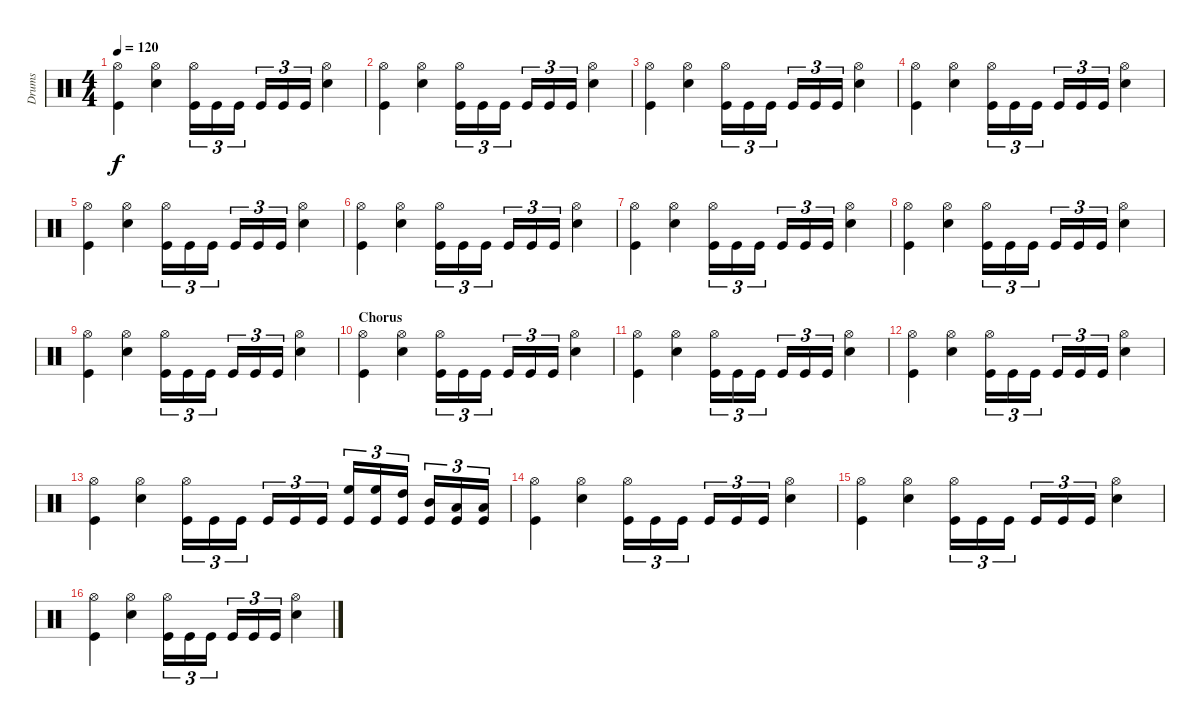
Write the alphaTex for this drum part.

\track ("Drums" "Drums") {instrument percussion}
\staff {score}
\articulation defaults
\ts (4 4)
\tempo 120
\clef neutral
\ks c
("Hi-Hat (open)" "Kick (hit)").4{dy f} ("Hi-Hat (open)" "Snare (hit) 2").4 ("Hi-Hat (open)" "Kick (hit)").16{tu (3 2)} "Kick (hit)".16{tu (3 2)} "Kick (hit)".16{tu (3 2)} "Kick (hit)".16{tu (3 2)} "Kick (hit)".16{tu (3 2)} "Kick (hit)".16{tu (3 2)} ("Hi-Hat (open)" "Snare (hit) 2").4 |
("Hi-Hat (open)" "Kick (hit)").4 ("Hi-Hat (open)" "Snare (hit) 2").4 ("Hi-Hat (open)" "Kick (hit)").16{tu (3 2)} "Kick (hit)".16{tu (3 2)} "Kick (hit)".16{tu (3 2)} "Kick (hit)".16{tu (3 2)} "Kick (hit)".16{tu (3 2)} "Kick (hit)".16{tu (3 2)} ("Hi-Hat (open)" "Snare (hit) 2").4 |
("Hi-Hat (open)" "Kick (hit)").4 ("Hi-Hat (open)" "Snare (hit) 2").4 ("Hi-Hat (open)" "Kick (hit)").16{tu (3 2)} "Kick (hit)".16{tu (3 2)} "Kick (hit)".16{tu (3 2)} "Kick (hit)".16{tu (3 2)} "Kick (hit)".16{tu (3 2)} "Kick (hit)".16{tu (3 2)} ("Hi-Hat (open)" "Snare (hit) 2").4 |
("Hi-Hat (open)" "Kick (hit)").4 ("Hi-Hat (open)" "Snare (hit) 2").4 ("Hi-Hat (open)" "Kick (hit)").16{tu (3 2)} "Kick (hit)".16{tu (3 2)} "Kick (hit)".16{tu (3 2)} "Kick (hit)".16{tu (3 2)} "Kick (hit)".16{tu (3 2)} "Kick (hit)".16{tu (3 2)} ("Hi-Hat (open)" "Snare (hit) 2").4 |
("Hi-Hat (open)" "Kick (hit)").4 ("Hi-Hat (open)" "Snare (hit) 2").4 ("Hi-Hat (open)" "Kick (hit)").16{tu (3 2)} "Kick (hit)".16{tu (3 2)} "Kick (hit)".16{tu (3 2)} "Kick (hit)".16{tu (3 2)} "Kick (hit)".16{tu (3 2)} "Kick (hit)".16{tu (3 2)} ("Hi-Hat (open)" "Snare (hit) 2").4 |
("Hi-Hat (open)" "Kick (hit)").4 ("Hi-Hat (open)" "Snare (hit) 2").4 ("Hi-Hat (open)" "Kick (hit)").16{tu (3 2)} "Kick (hit)".16{tu (3 2)} "Kick (hit)".16{tu (3 2)} "Kick (hit)".16{tu (3 2)} "Kick (hit)".16{tu (3 2)} "Kick (hit)".16{tu (3 2)} ("Hi-Hat (open)" "Snare (hit) 2").4 |
("Hi-Hat (open)" "Kick (hit)").4 ("Hi-Hat (open)" "Snare (hit) 2").4 ("Hi-Hat (open)" "Kick (hit)").16{tu (3 2)} "Kick (hit)".16{tu (3 2)} "Kick (hit)".16{tu (3 2)} "Kick (hit)".16{tu (3 2)} "Kick (hit)".16{tu (3 2)} "Kick (hit)".16{tu (3 2)} ("Hi-Hat (open)" "Snare (hit) 2").4 |
("Hi-Hat (open)" "Kick (hit)").4 ("Hi-Hat (open)" "Snare (hit) 2").4 ("Hi-Hat (open)" "Kick (hit)").16{tu (3 2)} "Kick (hit)".16{tu (3 2)} "Kick (hit)".16{tu (3 2)} "Kick (hit)".16{tu (3 2)} "Kick (hit)".16{tu (3 2)} "Kick (hit)".16{tu (3 2)} ("Hi-Hat (open)" "Snare (hit) 2").4 |
("Hi-Hat (open)" "Kick (hit)").4 ("Hi-Hat (open)" "Snare (hit) 2").4 ("Hi-Hat (open)" "Kick (hit)").16{tu (3 2)} "Kick (hit)".16{tu (3 2)} "Kick (hit)".16{tu (3 2)} "Kick (hit)".16{tu (3 2)} "Kick (hit)".16{tu (3 2)} "Kick (hit)".16{tu (3 2)} ("Hi-Hat (open)" "Snare (hit) 2").4 |
\section ("" "Chorus")
("Hi-Hat (open)" "Kick (hit)").4 ("Hi-Hat (open)" "Snare (hit) 2").4 ("Hi-Hat (open)" "Kick (hit)").16{tu (3 2)} "Kick (hit)".16{tu (3 2)} "Kick (hit)".16{tu (3 2)} "Kick (hit)".16{tu (3 2)} "Kick (hit)".16{tu (3 2)} "Kick (hit)".16{tu (3 2)} ("Hi-Hat (open)" "Snare (hit) 2").4 |
("Hi-Hat (open)" "Kick (hit)").4 ("Hi-Hat (open)" "Snare (hit) 2").4 ("Hi-Hat (open)" "Kick (hit)").16{tu (3 2)} "Kick (hit)".16{tu (3 2)} "Kick (hit)".16{tu (3 2)} "Kick (hit)".16{tu (3 2)} "Kick (hit)".16{tu (3 2)} "Kick (hit)".16{tu (3 2)} ("Hi-Hat (open)" "Snare (hit) 2").4 |
("Hi-Hat (open)" "Kick (hit)").4 ("Hi-Hat (open)" "Snare (hit) 2").4 ("Hi-Hat (open)" "Kick (hit)").16{tu (3 2)} "Kick (hit)".16{tu (3 2)} "Kick (hit)".16{tu (3 2)} "Kick (hit)".16{tu (3 2)} "Kick (hit)".16{tu (3 2)} "Kick (hit)".16{tu (3 2)} ("Hi-Hat (open)" "Snare (hit) 2").4 |
("Hi-Hat (open)" "Kick (hit)").4 ("Hi-Hat (open)" "Snare (hit) 2").4 ("Hi-Hat (open)" "Kick (hit)").16{tu (3 2)} "Kick (hit)".16{tu (3 2)} "Kick (hit)".16{tu (3 2)} "Kick (hit)".16{tu (3 2)} "Kick (hit)".16{tu (3 2)} "Kick (hit)".16{tu (3 2)} ("High Floor Tom (hit)" "Kick (hit)").16{tu (3 2)} ("High Floor Tom (hit)" "Kick (hit)").16{tu (3 2)} ("High Tom (hit)" "Kick (hit)").16{tu (3 2)} ("Mid Tom (hit)" "Kick (hit)").16{tu (3 2)} ("Low Tom (hit)" "Kick (hit)").16{tu (3 2)} ("Low Tom (hit)" "Kick (hit)").16{tu (3 2)} |
("Hi-Hat (open)" "Kick (hit)").4 ("Hi-Hat (open)" "Snare (hit) 2").4 ("Hi-Hat (open)" "Kick (hit)").16{tu (3 2)} "Kick (hit)".16{tu (3 2)} "Kick (hit)".16{tu (3 2)} "Kick (hit)".16{tu (3 2)} "Kick (hit)".16{tu (3 2)} "Kick (hit)".16{tu (3 2)} ("Hi-Hat (open)" "Snare (hit) 2").4 |
("Hi-Hat (open)" "Kick (hit)").4 ("Hi-Hat (open)" "Snare (hit) 2").4 ("Hi-Hat (open)" "Kick (hit)").16{tu (3 2)} "Kick (hit)".16{tu (3 2)} "Kick (hit)".16{tu (3 2)} "Kick (hit)".16{tu (3 2)} "Kick (hit)".16{tu (3 2)} "Kick (hit)".16{tu (3 2)} ("Hi-Hat (open)" "Snare (hit) 2").4 |
("Hi-Hat (open)" "Kick (hit)").4 ("Hi-Hat (open)" "Snare (hit) 2").4 ("Hi-Hat (open)" "Kick (hit)").16{tu (3 2)} "Kick (hit)".16{tu (3 2)} "Kick (hit)".16{tu (3 2)} "Kick (hit)".16{tu (3 2)} "Kick (hit)".16{tu (3 2)} "Kick (hit)".16{tu (3 2)} ("Hi-Hat (open)" "Snare (hit) 2").4
